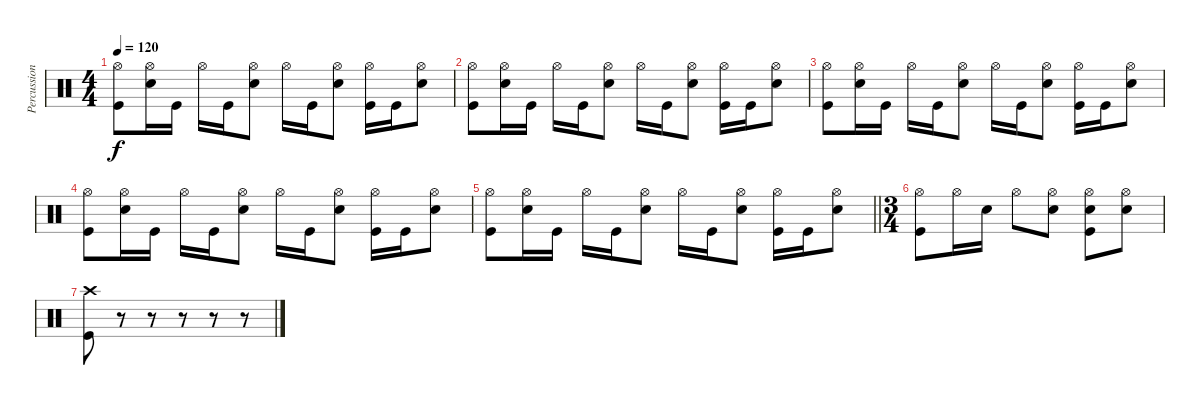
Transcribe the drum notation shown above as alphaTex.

\track ("Percussion" "Percussion") {instrument percussion}
\staff {score}
\articulation defaults
\ts (4 4)
\tempo 120
\clef neutral
\ks c
("Hi-Hat (open)" "Kick (hit)").8{dy f} ("Hi-Hat (open)" "Snare (hit) 2").16 "Kick (hit)".16 "Hi-Hat (open)".16 "Kick (hit)".16 ("Hi-Hat (open)" "Snare (hit) 2").8 "Hi-Hat (open)".16 "Kick (hit)".16 ("Hi-Hat (open)" "Snare (hit) 2").8 ("Hi-Hat (open)" "Kick (hit)").16 "Kick (hit)".16 ("Hi-Hat (open)" "Snare (hit) 2").8 |
("Hi-Hat (open)" "Kick (hit)").8 ("Hi-Hat (open)" "Snare (hit) 2").16 "Kick (hit)".16 "Hi-Hat (open)".16 "Kick (hit)".16 ("Hi-Hat (open)" "Snare (hit) 2").8 "Hi-Hat (open)".16 "Kick (hit)".16 ("Hi-Hat (open)" "Snare (hit) 2").8 ("Hi-Hat (open)" "Kick (hit)").16 "Kick (hit)".16 ("Hi-Hat (open)" "Snare (hit) 2").8 |
("Hi-Hat (open)" "Kick (hit)").8 ("Hi-Hat (open)" "Snare (hit) 2").16 "Kick (hit)".16 "Hi-Hat (open)".16 "Kick (hit)".16 ("Hi-Hat (open)" "Snare (hit) 2").8 "Hi-Hat (open)".16 "Kick (hit)".16 ("Hi-Hat (open)" "Snare (hit) 2").8 ("Hi-Hat (open)" "Kick (hit)").16 "Kick (hit)".16 ("Hi-Hat (open)" "Snare (hit) 2").8 |
("Hi-Hat (open)" "Kick (hit)").8 ("Hi-Hat (open)" "Snare (hit) 2").16 "Kick (hit)".16 "Hi-Hat (open)".16 "Kick (hit)".16 ("Hi-Hat (open)" "Snare (hit) 2").8 "Hi-Hat (open)".16 "Kick (hit)".16 ("Hi-Hat (open)" "Snare (hit) 2").8 ("Hi-Hat (open)" "Kick (hit)").16 "Kick (hit)".16 ("Hi-Hat (open)" "Snare (hit) 2").8 |
\barLineRight lightlight
("Hi-Hat (open)" "Kick (hit)").8 ("Hi-Hat (open)" "Snare (hit) 2").16 "Kick (hit)".16 "Hi-Hat (open)".16 "Kick (hit)".16 ("Hi-Hat (open)" "Snare (hit) 2").8 "Hi-Hat (open)".16 "Kick (hit)".16 ("Hi-Hat (open)" "Snare (hit) 2").8 ("Hi-Hat (open)" "Kick (hit)").16 "Kick (hit)".16 ("Hi-Hat (open)" "Snare (hit) 2").8 |
\ts (3 4)
("Hi-Hat (open)" "Kick (hit)").8 "Hi-Hat (open)".16 "Snare (hit) 2".16 "Hi-Hat (open)".8 ("Hi-Hat (open)" "Snare (hit) 2").8 ("Hi-Hat (open)" "Snare (hit) 2" "Kick (hit)").8 ("Hi-Hat (open)" "Snare (hit) 2").8 |
("Crash high (hit)" "Kick (hit)").8 r.8{volume 0} r.8 r.8 r.8 r.8
